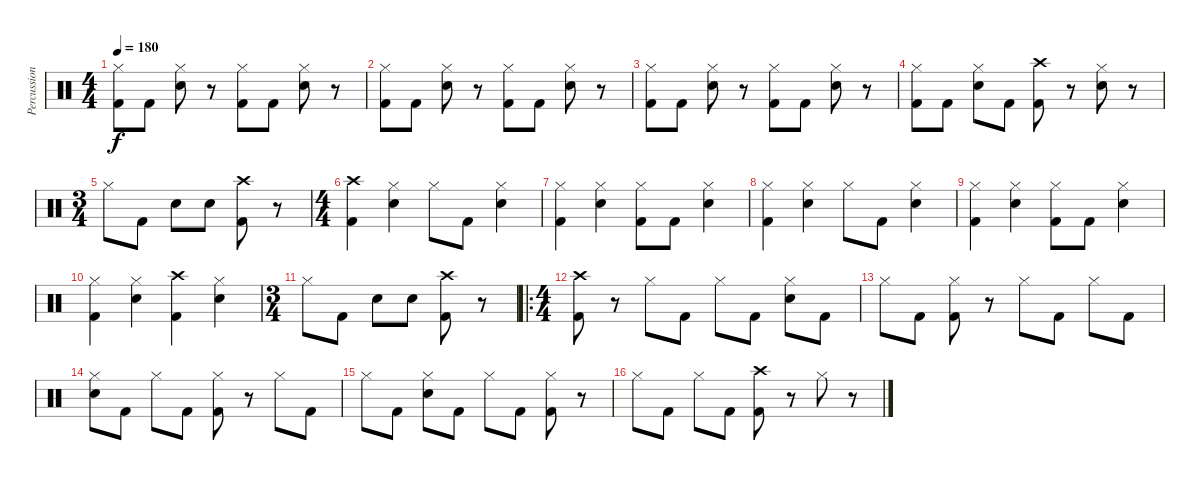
\track ("Percussion" "Percussion") {instrument percussion}
\staff {score}
\articulation defaults
\ts (4 4)
\tempo 180
\clef neutral
\ks c
("Hi-Hat (closed)" "Kick (hit) 2").8{dy f} "Kick (hit) 2".8 ("Hi-Hat (closed)" "Snare (hit) 2").8 r.8 ("Hi-Hat (closed)" "Kick (hit) 2").8 "Kick (hit) 2".8 ("Hi-Hat (closed)" "Snare (hit) 2").8 r.8 |
("Hi-Hat (closed)" "Kick (hit) 2").8 "Kick (hit) 2".8 ("Hi-Hat (closed)" "Snare (hit) 2").8 r.8 ("Hi-Hat (closed)" "Kick (hit) 2").8 "Kick (hit) 2".8 ("Hi-Hat (closed)" "Snare (hit) 2").8 r.8 |
("Hi-Hat (closed)" "Kick (hit) 2").8 "Kick (hit) 2".8 ("Hi-Hat (closed)" "Snare (hit) 2").8 r.8 ("Hi-Hat (closed)" "Kick (hit) 2").8 "Kick (hit) 2".8 ("Hi-Hat (closed)" "Snare (hit) 2").8 r.8 |
("Hi-Hat (closed)" "Kick (hit) 2").8 "Kick (hit) 2".8 ("Hi-Hat (closed)" "Snare (hit) 2").8 "Kick (hit) 2".8 ("Crash high (hit)" "Kick (hit) 2").8 r.8 ("Hi-Hat (closed)" "Snare (hit) 2").8 r.8 |
\ts (3 4)
"Hi-Hat (closed)".8 "Kick (hit) 2".8 "Snare (hit) 2".8 "Snare (hit) 2".8 ("Crash high (hit)" "Kick (hit) 2").8 r.8 |
\ts (4 4)
("Crash high (hit)" "Kick (hit) 2").4 ("Hi-Hat (closed)" "Snare (hit) 2").4 "Hi-Hat (closed)".8 "Kick (hit) 2".8 ("Hi-Hat (closed)" "Snare (hit) 2").4 |
("Hi-Hat (closed)" "Kick (hit) 2").4 ("Hi-Hat (closed)" "Snare (hit) 2").4 ("Hi-Hat (closed)" "Kick (hit) 2").8 "Kick (hit) 2".8 ("Hi-Hat (closed)" "Snare (hit) 2").4 |
("Hi-Hat (closed)" "Kick (hit) 2").4 ("Hi-Hat (closed)" "Snare (hit) 2").4 "Hi-Hat (closed)".8 "Kick (hit) 2".8 ("Hi-Hat (closed)" "Snare (hit) 2").4 |
("Hi-Hat (closed)" "Kick (hit) 2").4 ("Hi-Hat (closed)" "Snare (hit) 2").4 ("Hi-Hat (closed)" "Kick (hit) 2").8 "Kick (hit) 2".8 ("Hi-Hat (closed)" "Snare (hit) 2").4 |
("Hi-Hat (closed)" "Kick (hit) 2").4 ("Hi-Hat (closed)" "Snare (hit) 2").4 ("Crash high (hit)" "Kick (hit) 2").4 ("Hi-Hat (closed)" "Snare (hit) 2").4 |
\ts (3 4)
"Hi-Hat (closed)".8 "Kick (hit) 2".8 "Snare (hit) 2".8 "Snare (hit) 2".8 ("Crash high (hit)" "Kick (hit) 2").8 r.8 |
\ro
\ts (4 4)
("Crash high (hit)" "Kick (hit) 2").8 r.8 "Hi-Hat (closed)".8 "Kick (hit) 2".8 "Hi-Hat (closed)".8 "Kick (hit) 2".8 ("Hi-Hat (closed)" "Snare (hit) 2").8 "Kick (hit) 2".8 |
"Hi-Hat (closed)".8 "Kick (hit) 2".8 ("Hi-Hat (closed)" "Kick (hit) 2").8 r.8 "Hi-Hat (closed)".8 "Kick (hit) 2".8 "Hi-Hat (closed)".8 "Kick (hit) 2".8 |
("Hi-Hat (closed)" "Snare (hit) 2").8 "Kick (hit) 2".8 "Hi-Hat (closed)".8 "Kick (hit) 2".8 ("Hi-Hat (closed)" "Kick (hit) 2").8 r.8 "Hi-Hat (closed)".8 "Kick (hit) 2".8 |
"Hi-Hat (closed)".8 "Kick (hit) 2".8 ("Hi-Hat (closed)" "Snare (hit) 2").8 "Kick (hit) 2".8 "Hi-Hat (closed)".8 "Kick (hit) 2".8 ("Hi-Hat (closed)" "Kick (hit) 2").8 r.8 |
"Hi-Hat (closed)".8 "Kick (hit) 2".8 "Hi-Hat (closed)".8 "Kick (hit) 2".8 ("Crash high (hit)" "Kick (hit) 2").8 r.8 "Hi-Hat (closed)".8 r.8
